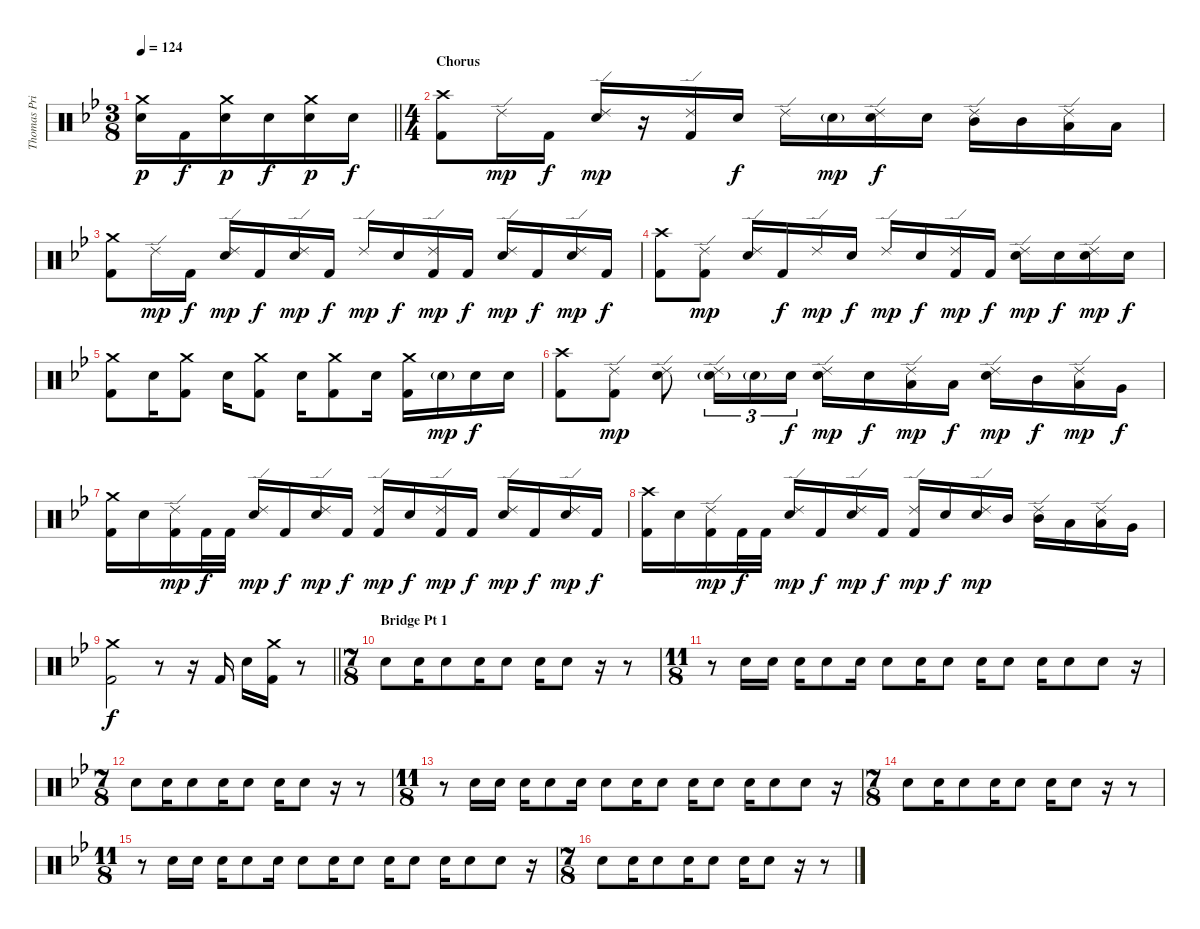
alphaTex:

\track ("Thomas Pridgen" "Thomas Pri") {instrument percussion}
\staff {score}
\articulation defaults
\ts (3 8)
\tempo 124
\clef neutral
\barLineRight lightlight
\ks gminor
("Crash medium (hit)" "Electric Snare (hit)").16{dy p} "Kick (hit) 2".16{dy f} ("Crash medium (hit)" "Electric Snare (hit)").16{dy p} "Electric Snare (hit)".16{dy f} ("Crash medium (hit)" "Electric Snare (hit)").16{dy p} "Electric Snare (hit)".16{dy f} |
\ts (4 4)
\section ("" "Chorus")
("Crash high (hit)" "Kick (hit) 2").8 "Ride (edge) 2".16{dy mp} "Kick (hit) 2".16{dy f} ("Ride (edge) 2" "Electric Snare (hit)").16{dy mp} r.16 ("Ride (edge) 2" "Kick (hit) 2").16 "Electric Snare (hit)".16{dy f} "Ride (edge) 2".16 "Electric Snare (hit)"{g}.16{dy mp} ("Ride (edge) 2" "Electric Snare (hit)").16{dy f} "Electric Snare (hit)".16 ("Ride (edge) 2" "Mid Tom (hit)").16 "Mid Tom (hit)".16 ("Ride (edge) 2" "Low Tom (hit)").16 "Low Tom (hit)".16 |
("Crash medium (hit)" "Kick (hit) 2").8 "Ride (edge) 2".16{dy mp} "Kick (hit) 2".16{dy f} ("Ride (edge) 2" "Electric Snare (hit)").16{dy mp} "Kick (hit) 2".16{dy f} ("Ride (edge) 2" "Electric Snare (hit)").16{dy mp} "Kick (hit) 2".16{dy f} "Ride (edge) 2".16{dy mp} "Electric Snare (hit)".16{dy f} ("Ride (edge) 2" "Kick (hit) 2").16{dy mp} "Kick (hit) 2".16{dy f} ("Ride (edge) 2" "Electric Snare (hit)").16{dy mp} "Kick (hit) 2".16{dy f} ("Ride (edge) 2" "Electric Snare (hit)").16{dy mp} "Kick (hit) 2".16{dy f} |
("Crash high (hit)" "Kick (hit) 2").8 ("Ride (edge) 2" "Kick (hit) 2").8{dy mp} ("Ride (edge) 2" "Electric Snare (hit)").16 "Kick (hit) 2".16{dy f} "Ride (edge) 2".16{dy mp} "Electric Snare (hit)".16{dy f} "Ride (edge) 2".16{dy mp} "Electric Snare (hit)".16{dy f} ("Ride (edge) 2" "Kick (hit) 2").16{dy mp} "Kick (hit) 2".16{dy f} ("Ride (edge) 2" "Electric Snare (hit)").16{dy mp} "Electric Snare (hit)".16{dy f} ("Ride (edge) 2" "Electric Snare (hit)").16{dy mp} "Electric Snare (hit)".16{dy f} |
("Crash medium (hit)" "Kick (hit) 2").8 "Electric Snare (hit)".16 ("Crash medium (hit)" "Kick (hit) 2").8 "Electric Snare (hit)".16 ("Crash medium (hit)" "Kick (hit) 2").8 "Electric Snare (hit)".16 ("Crash medium (hit)" "Kick (hit) 2").8 "Electric Snare (hit)".16 ("Crash medium (hit)" "Kick (hit) 2").16 "Electric Snare (hit)"{g}.16{dy mp} "Electric Snare (hit)".16{dy f} "Electric Snare (hit)".16 |
("Crash high (hit)" "Kick (hit) 2").8 ("Ride (edge) 2" "Kick (hit) 2").8{dy mp} ("Ride (edge) 2" "Electric Snare (hit)").8 ("Ride (edge) 2" "Electric Snare (hit)"{g}).16{tu (3 2)} "Electric Snare (hit)"{g}.16{tu (3 2)} "Electric Snare (hit)".16{tu (3 2) dy f} ("Ride (edge) 2" "Electric Snare (hit)").16{dy mp} "Electric Snare (hit)".16{dy f} ("Ride (edge) 2" "Low Tom (hit)").16{dy mp} "Low Tom (hit)".16{dy f} ("Ride (edge) 2" "Electric Snare (hit)").16{dy mp} "Mid Tom (hit)".16{dy f} ("Ride (edge) 2" "Low Tom (hit)").16{dy mp} "Very Low Tom (hit)".16{dy f} |
("Crash medium (hit)" "Kick (hit) 2").16 "Electric Snare (hit)".16 ("Ride (edge) 2" "Kick (hit) 2").16{dy mp} "Kick (hit) 2".32{dy f} "Kick (hit) 2".32 ("Ride (edge) 2" "Electric Snare (hit)").16{dy mp} "Kick (hit) 2".16{dy f} ("Ride (edge) 2" "Electric Snare (hit)").16{dy mp} "Kick (hit) 2".16{dy f} ("Ride (edge) 2" "Kick (hit) 2").16{dy mp} "Electric Snare (hit)".16{dy f} ("Ride (edge) 2" "Kick (hit) 2").16{dy mp} "Kick (hit) 2".16{dy f} ("Ride (edge) 2" "Electric Snare (hit)").16{dy mp} "Kick (hit) 2".16{dy f} ("Ride (edge) 2" "Electric Snare (hit)").16{dy mp} "Kick (hit) 2".16{dy f} |
("Crash high (hit)" "Kick (hit) 2").16 "Electric Snare (hit)".16 ("Ride (edge) 2" "Kick (hit) 2").16{dy mp} "Kick (hit) 2".32{dy f} "Kick (hit) 2".32 ("Ride (edge) 2" "Electric Snare (hit)").16{dy mp} "Kick (hit) 2".16{dy f} ("Ride (edge) 2" "Electric Snare (hit)").16{dy mp} "Kick (hit) 2".16{dy f} ("Ride (edge) 2" "Kick (hit) 2").16{dy mp} "Electric Snare (hit)".16{dy f} ("Ride (edge) 2" "Electric Snare (hit)").16{dy mp} "Mid Tom (hit)".16 ("Ride (edge) 2" "Mid Tom (hit)").16 "Low Tom (hit)".16 ("Ride (edge) 2" "Low Tom (hit)").16 "Very Low Tom (hit)".16 |
\barLineRight lightlight
("Crash medium (hit)" "Kick (hit) 2").2{dy f} r.8 r.16 "Kick (hit) 2".16 "Electric Snare (hit)".16 ("Crash medium (hit)" "Kick (hit) 2").16 r.8 |
\ts (7 8)
\section ("" "Bridge Pt 1")
"Electric Snare (hit)".8 "Electric Snare (hit)".16 "Electric Snare (hit)".8 "Electric Snare (hit)".16 "Electric Snare (hit)".8 "Electric Snare (hit)".16 "Electric Snare (hit)".8 r.16 r.8 |
\ts (11 8)
r.8 "Electric Snare (hit)".16 "Electric Snare (hit)".16 "Electric Snare (hit)".16 "Electric Snare (hit)".8 "Electric Snare (hit)".16 "Electric Snare (hit)".8 "Electric Snare (hit)".16 "Electric Snare (hit)".8 "Electric Snare (hit)".16 "Electric Snare (hit)".8 "Electric Snare (hit)".16 "Electric Snare (hit)".8 "Electric Snare (hit)".8 r.16 |
\ts (7 8)
"Electric Snare (hit)".8 "Electric Snare (hit)".16 "Electric Snare (hit)".8 "Electric Snare (hit)".16 "Electric Snare (hit)".8 "Electric Snare (hit)".16 "Electric Snare (hit)".8 r.16 r.8 |
\ts (11 8)
r.8 "Electric Snare (hit)".16 "Electric Snare (hit)".16 "Electric Snare (hit)".16 "Electric Snare (hit)".8 "Electric Snare (hit)".16 "Electric Snare (hit)".8 "Electric Snare (hit)".16 "Electric Snare (hit)".8 "Electric Snare (hit)".16 "Electric Snare (hit)".8 "Electric Snare (hit)".16 "Electric Snare (hit)".8 "Electric Snare (hit)".8 r.16 |
\ts (7 8)
"Electric Snare (hit)".8 "Electric Snare (hit)".16 "Electric Snare (hit)".8 "Electric Snare (hit)".16 "Electric Snare (hit)".8 "Electric Snare (hit)".16 "Electric Snare (hit)".8 r.16 r.8 |
\ts (11 8)
r.8 "Electric Snare (hit)".16 "Electric Snare (hit)".16 "Electric Snare (hit)".16 "Electric Snare (hit)".8 "Electric Snare (hit)".16 "Electric Snare (hit)".8 "Electric Snare (hit)".16 "Electric Snare (hit)".8 "Electric Snare (hit)".16 "Electric Snare (hit)".8 "Electric Snare (hit)".16 "Electric Snare (hit)".8 "Electric Snare (hit)".8 r.16 |
\ts (7 8)
"Electric Snare (hit)".8 "Electric Snare (hit)".16 "Electric Snare (hit)".8 "Electric Snare (hit)".16 "Electric Snare (hit)".8 "Electric Snare (hit)".16 "Electric Snare (hit)".8 r.16 r.8
